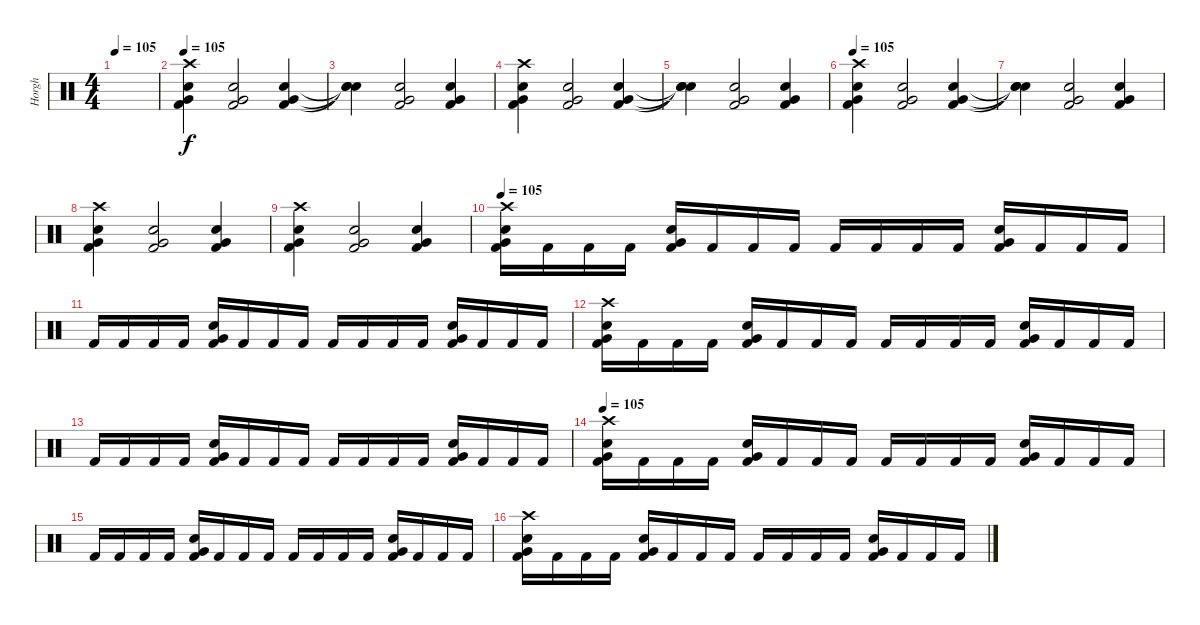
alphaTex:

\track ("Horgh" "Horgh") {instrument percussion}
\staff {score}
\articulation defaults
\ts (4 4)
\tempo 105
\clef neutral
\ks c
|
\tempo 105
("Crash high (hit)" "Very Low Tom (hit)" "Electric Snare (hit)" "Kick (hit) 2").4 ("Very Low Tom (hit)" "Electric Snare (hit)" "Kick (hit) 2").2 ("Very Low Tom (hit)" "Electric Snare (hit)" "Kick (hit) 2").4 |
("Snare (hit)"{t} "Snare (hit)"{t} "Snare (hit)"{t}).4 ("Very Low Tom (hit)" "Electric Snare (hit)" "Kick (hit) 2").2 ("Very Low Tom (hit)" "Electric Snare (hit)" "Kick (hit) 2").4 |
("Crash high (hit)" "Very Low Tom (hit)" "Electric Snare (hit)" "Kick (hit) 2").4 ("Very Low Tom (hit)" "Electric Snare (hit)" "Kick (hit) 2").2 ("Very Low Tom (hit)" "Electric Snare (hit)" "Kick (hit) 2").4 |
("Snare (hit)"{t} "Snare (hit)"{t} "Snare (hit)"{t}).4 ("Very Low Tom (hit)" "Electric Snare (hit)" "Kick (hit) 2").2 ("Very Low Tom (hit)" "Electric Snare (hit)" "Kick (hit) 2").4 |
\tempo 105
("Crash high (hit)" "Very Low Tom (hit)" "Electric Snare (hit)" "Kick (hit) 2").4 ("Very Low Tom (hit)" "Electric Snare (hit)" "Kick (hit) 2").2 ("Very Low Tom (hit)" "Electric Snare (hit)" "Kick (hit) 2").4 |
("Snare (hit)"{t} "Snare (hit)"{t} "Snare (hit)"{t}).4 ("Very Low Tom (hit)" "Electric Snare (hit)" "Kick (hit) 2").2 ("Very Low Tom (hit)" "Electric Snare (hit)" "Kick (hit) 2").4 |
("Crash high (hit)" "Very Low Tom (hit)" "Electric Snare (hit)" "Kick (hit) 2").4 ("Very Low Tom (hit)" "Electric Snare (hit)" "Kick (hit) 2").2 ("Very Low Tom (hit)" "Electric Snare (hit)" "Kick (hit) 2").4 |
("Crash high (hit)" "Very Low Tom (hit)" "Electric Snare (hit)" "Kick (hit) 2").4 ("Very Low Tom (hit)" "Electric Snare (hit)" "Kick (hit) 2").2 ("Very Low Tom (hit)" "Electric Snare (hit)" "Kick (hit) 2").4 |
\tempo 105
("Crash high (hit)" "Very Low Tom (hit)" "Electric Snare (hit)" "Kick (hit) 2").16 "Kick (hit) 2".16 "Kick (hit) 2".16 "Kick (hit) 2".16 ("Electric Snare (hit)" "Very Low Tom (hit)" "Kick (hit) 2").16 "Kick (hit) 2".16 "Kick (hit) 2".16 "Kick (hit) 2".16 "Kick (hit) 2".16 "Kick (hit) 2".16 "Kick (hit) 2".16 "Kick (hit) 2".16 ("Very Low Tom (hit)" "Electric Snare (hit)" "Kick (hit) 2").16 "Kick (hit) 2".16 "Kick (hit) 2".16 "Kick (hit) 2".16 |
"Kick (hit) 2".16 "Kick (hit) 2".16 "Kick (hit) 2".16 "Kick (hit) 2".16 ("Very Low Tom (hit)" "Electric Snare (hit)" "Kick (hit) 2").16 "Kick (hit) 2".16 "Kick (hit) 2".16 "Kick (hit) 2".16 "Kick (hit) 2".16 "Kick (hit) 2".16 "Kick (hit) 2".16 "Kick (hit) 2".16 ("Very Low Tom (hit)" "Electric Snare (hit)" "Kick (hit) 2").16 "Kick (hit) 2".16 "Kick (hit) 2".16 "Kick (hit) 2".16 |
("Crash high (hit)" "Very Low Tom (hit)" "Electric Snare (hit)" "Kick (hit) 2").16 "Kick (hit) 2".16 "Kick (hit) 2".16 "Kick (hit) 2".16 ("Electric Snare (hit)" "Very Low Tom (hit)" "Kick (hit) 2").16 "Kick (hit) 2".16 "Kick (hit) 2".16 "Kick (hit) 2".16 "Kick (hit) 2".16 "Kick (hit) 2".16 "Kick (hit) 2".16 "Kick (hit) 2".16 ("Very Low Tom (hit)" "Electric Snare (hit)" "Kick (hit) 2").16 "Kick (hit) 2".16 "Kick (hit) 2".16 "Kick (hit) 2".16 |
"Kick (hit) 2".16 "Kick (hit) 2".16 "Kick (hit) 2".16 "Kick (hit) 2".16 ("Very Low Tom (hit)" "Electric Snare (hit)" "Kick (hit) 2").16 "Kick (hit) 2".16 "Kick (hit) 2".16 "Kick (hit) 2".16 "Kick (hit) 2".16 "Kick (hit) 2".16 "Kick (hit) 2".16 "Kick (hit) 2".16 ("Very Low Tom (hit)" "Electric Snare (hit)" "Kick (hit) 2").16 "Kick (hit) 2".16 "Kick (hit) 2".16 "Kick (hit) 2".16 |
\tempo 105
("Crash high (hit)" "Very Low Tom (hit)" "Electric Snare (hit)" "Kick (hit) 2").16 "Kick (hit) 2".16 "Kick (hit) 2".16 "Kick (hit) 2".16 ("Electric Snare (hit)" "Very Low Tom (hit)" "Kick (hit) 2").16 "Kick (hit) 2".16 "Kick (hit) 2".16 "Kick (hit) 2".16 "Kick (hit) 2".16 "Kick (hit) 2".16 "Kick (hit) 2".16 "Kick (hit) 2".16 ("Very Low Tom (hit)" "Electric Snare (hit)" "Kick (hit) 2").16 "Kick (hit) 2".16 "Kick (hit) 2".16 "Kick (hit) 2".16 |
"Kick (hit) 2".16 "Kick (hit) 2".16 "Kick (hit) 2".16 "Kick (hit) 2".16 ("Very Low Tom (hit)" "Electric Snare (hit)" "Kick (hit) 2").16 "Kick (hit) 2".16 "Kick (hit) 2".16 "Kick (hit) 2".16 "Kick (hit) 2".16 "Kick (hit) 2".16 "Kick (hit) 2".16 "Kick (hit) 2".16 ("Very Low Tom (hit)" "Electric Snare (hit)" "Kick (hit) 2").16 "Kick (hit) 2".16 "Kick (hit) 2".16 "Kick (hit) 2".16 |
("Crash high (hit)" "Very Low Tom (hit)" "Electric Snare (hit)" "Kick (hit) 2").16 "Kick (hit) 2".16 "Kick (hit) 2".16 "Kick (hit) 2".16 ("Electric Snare (hit)" "Very Low Tom (hit)" "Kick (hit) 2").16 "Kick (hit) 2".16 "Kick (hit) 2".16 "Kick (hit) 2".16 "Kick (hit) 2".16 "Kick (hit) 2".16 "Kick (hit) 2".16 "Kick (hit) 2".16 ("Very Low Tom (hit)" "Electric Snare (hit)" "Kick (hit) 2").16 "Kick (hit) 2".16 "Kick (hit) 2".16 "Kick (hit) 2".16
